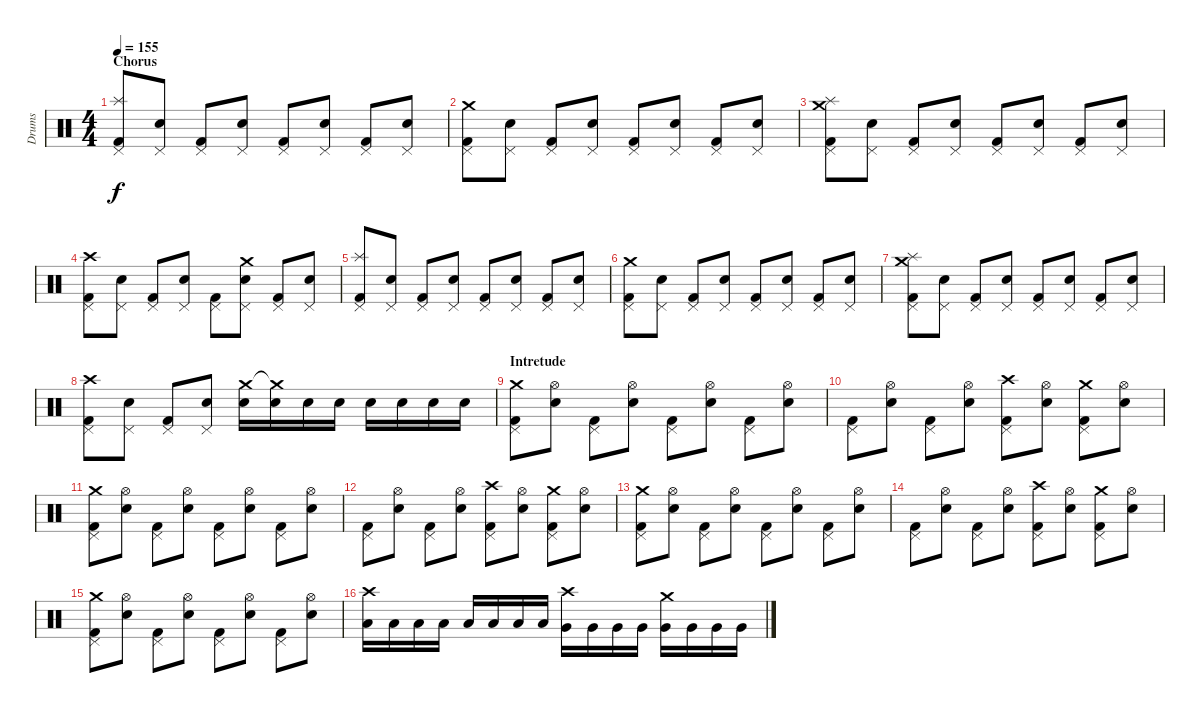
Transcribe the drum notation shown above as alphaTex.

\track ("Drums" "Drums") {instrument percussion}
\staff {score}
\articulation defaults
\ts (4 4)
\section ("" "Chorus")
\tempo 155
\clef neutral
\ks c
("Pedal Hi-Hat (hit)" "Splash (hit)" "Kick (hit) 2").8{dy f} ("Pedal Hi-Hat (hit)" "Electric Snare (hit)").8 ("Pedal Hi-Hat (hit)" "Kick (hit) 2").8 ("Pedal Hi-Hat (hit)" "Electric Snare (hit)").8 ("Pedal Hi-Hat (hit)" "Kick (hit) 2").8 ("Pedal Hi-Hat (hit)" "Electric Snare (hit)").8 ("Pedal Hi-Hat (hit)" "Kick (hit) 2").8 ("Pedal Hi-Hat (hit)" "Electric Snare (hit)").8 |
("Pedal Hi-Hat (hit)" "Crash medium (hit)" "Kick (hit) 2").8 ("Pedal Hi-Hat (hit)" "Electric Snare (hit)").8 ("Pedal Hi-Hat (hit)" "Kick (hit) 2").8 ("Pedal Hi-Hat (hit)" "Electric Snare (hit)").8 ("Pedal Hi-Hat (hit)" "Kick (hit) 2").8 ("Pedal Hi-Hat (hit)" "Electric Snare (hit)").8 ("Pedal Hi-Hat (hit)" "Kick (hit) 2").8 ("Pedal Hi-Hat (hit)" "Electric Snare (hit)").8 |
("Pedal Hi-Hat (hit)" "Splash (hit)" "Crash medium (hit)" "Kick (hit) 2").8 ("Pedal Hi-Hat (hit)" "Electric Snare (hit)").8 ("Pedal Hi-Hat (hit)" "Kick (hit) 2").8 ("Pedal Hi-Hat (hit)" "Electric Snare (hit)").8 ("Pedal Hi-Hat (hit)" "Kick (hit) 2").8 ("Pedal Hi-Hat (hit)" "Electric Snare (hit)").8 ("Pedal Hi-Hat (hit)" "Kick (hit) 2").8 ("Pedal Hi-Hat (hit)" "Electric Snare (hit)").8 |
("Pedal Hi-Hat (hit)" "Crash high (hit)" "Kick (hit) 2").8 ("Pedal Hi-Hat (hit)" "Electric Snare (hit)").8 ("Pedal Hi-Hat (hit)" "Kick (hit) 2").8 ("Pedal Hi-Hat (hit)" "Electric Snare (hit)").8 ("Pedal Hi-Hat (hit)" "Kick (hit) 2").8 ("Pedal Hi-Hat (hit)" "Crash medium (hit)" "Electric Snare (hit)").8 ("Pedal Hi-Hat (hit)" "Kick (hit) 2").8 ("Pedal Hi-Hat (hit)" "Electric Snare (hit)").8 |
("Pedal Hi-Hat (hit)" "Splash (hit)" "Kick (hit) 2").8 ("Pedal Hi-Hat (hit)" "Electric Snare (hit)").8 ("Pedal Hi-Hat (hit)" "Kick (hit) 2").8 ("Pedal Hi-Hat (hit)" "Electric Snare (hit)").8 ("Pedal Hi-Hat (hit)" "Kick (hit) 2").8 ("Pedal Hi-Hat (hit)" "Electric Snare (hit)").8 ("Pedal Hi-Hat (hit)" "Kick (hit) 2").8 ("Pedal Hi-Hat (hit)" "Electric Snare (hit)").8 |
("Pedal Hi-Hat (hit)" "Crash medium (hit)" "Kick (hit) 2").8 ("Pedal Hi-Hat (hit)" "Electric Snare (hit)").8 ("Pedal Hi-Hat (hit)" "Kick (hit) 2").8 ("Pedal Hi-Hat (hit)" "Electric Snare (hit)").8 ("Pedal Hi-Hat (hit)" "Kick (hit) 2").8 ("Pedal Hi-Hat (hit)" "Electric Snare (hit)").8 ("Pedal Hi-Hat (hit)" "Kick (hit) 2").8 ("Pedal Hi-Hat (hit)" "Electric Snare (hit)").8 |
("Pedal Hi-Hat (hit)" "Splash (hit)" "Crash medium (hit)" "Kick (hit) 2").8 ("Pedal Hi-Hat (hit)" "Electric Snare (hit)").8 ("Pedal Hi-Hat (hit)" "Kick (hit) 2").8 ("Pedal Hi-Hat (hit)" "Electric Snare (hit)").8 ("Pedal Hi-Hat (hit)" "Kick (hit) 2").8 ("Pedal Hi-Hat (hit)" "Electric Snare (hit)").8 ("Pedal Hi-Hat (hit)" "Kick (hit) 2").8 ("Pedal Hi-Hat (hit)" "Electric Snare (hit)").8 |
("Pedal Hi-Hat (hit)" "Crash high (hit)" "Kick (hit) 2").8 ("Pedal Hi-Hat (hit)" "Electric Snare (hit)").8 ("Pedal Hi-Hat (hit)" "Kick (hit) 2").8 ("Pedal Hi-Hat (hit)" "Electric Snare (hit)").8 ("Crash medium (hit)" "Electric Snare (hit)").16 ("Crash medium (hit)"{t} "Electric Snare (hit)").16 "Electric Snare (hit)".16 "Electric Snare (hit)".16 "Electric Snare (hit)".16 "Electric Snare (hit)".16 "Electric Snare (hit)".16 "Electric Snare (hit)".16 |
\section ("" "Intretude")
("Pedal Hi-Hat (hit)" "Crash medium (hit)" "Kick (hit) 2").8 ("Hi-Hat (open)" "Electric Snare (hit)").8 ("Pedal Hi-Hat (hit)" "Kick (hit) 2").8 ("Hi-Hat (open)" "Electric Snare (hit)").8 ("Pedal Hi-Hat (hit)" "Kick (hit) 2").8 ("Hi-Hat (open)" "Electric Snare (hit)").8 ("Pedal Hi-Hat (hit)" "Kick (hit) 2").8 ("Hi-Hat (open)" "Electric Snare (hit)").8 |
("Pedal Hi-Hat (hit)" "Kick (hit) 2").8 ("Hi-Hat (open)" "Electric Snare (hit)").8 ("Pedal Hi-Hat (hit)" "Kick (hit) 2").8 ("Hi-Hat (open)" "Electric Snare (hit)").8 ("Pedal Hi-Hat (hit)" "Crash high (hit)" "Kick (hit) 2").8 ("Hi-Hat (open)" "Electric Snare (hit)").8 ("Pedal Hi-Hat (hit)" "Crash medium (hit)" "Kick (hit) 2").8 ("Hi-Hat (open)" "Electric Snare (hit)").8 |
("Pedal Hi-Hat (hit)" "Crash medium (hit)" "Kick (hit) 2").8 ("Hi-Hat (open)" "Electric Snare (hit)").8 ("Pedal Hi-Hat (hit)" "Kick (hit) 2").8 ("Hi-Hat (open)" "Electric Snare (hit)").8 ("Pedal Hi-Hat (hit)" "Kick (hit) 2").8 ("Hi-Hat (open)" "Electric Snare (hit)").8 ("Pedal Hi-Hat (hit)" "Kick (hit) 2").8 ("Hi-Hat (open)" "Electric Snare (hit)").8 |
("Pedal Hi-Hat (hit)" "Kick (hit) 2").8 ("Hi-Hat (open)" "Electric Snare (hit)").8 ("Pedal Hi-Hat (hit)" "Kick (hit) 2").8 ("Hi-Hat (open)" "Electric Snare (hit)").8 ("Pedal Hi-Hat (hit)" "Crash high (hit)" "Kick (hit) 2").8 ("Hi-Hat (open)" "Electric Snare (hit)").8 ("Pedal Hi-Hat (hit)" "Crash medium (hit)" "Kick (hit) 2").8 ("Hi-Hat (open)" "Electric Snare (hit)").8 |
("Pedal Hi-Hat (hit)" "Crash medium (hit)" "Kick (hit) 2").8 ("Hi-Hat (open)" "Electric Snare (hit)").8 ("Pedal Hi-Hat (hit)" "Kick (hit) 2").8 ("Hi-Hat (open)" "Electric Snare (hit)").8 ("Pedal Hi-Hat (hit)" "Kick (hit) 2").8 ("Hi-Hat (open)" "Electric Snare (hit)").8 ("Pedal Hi-Hat (hit)" "Kick (hit) 2").8 ("Hi-Hat (open)" "Electric Snare (hit)").8 |
("Pedal Hi-Hat (hit)" "Kick (hit) 2").8 ("Hi-Hat (open)" "Electric Snare (hit)").8 ("Pedal Hi-Hat (hit)" "Kick (hit) 2").8 ("Hi-Hat (open)" "Electric Snare (hit)").8 ("Pedal Hi-Hat (hit)" "Crash high (hit)" "Kick (hit) 2").8 ("Hi-Hat (open)" "Electric Snare (hit)").8 ("Pedal Hi-Hat (hit)" "Crash medium (hit)" "Kick (hit) 2").8 ("Hi-Hat (open)" "Electric Snare (hit)").8 |
("Pedal Hi-Hat (hit)" "Crash medium (hit)" "Kick (hit) 2").8 ("Hi-Hat (open)" "Electric Snare (hit)").8 ("Pedal Hi-Hat (hit)" "Kick (hit) 2").8 ("Hi-Hat (open)" "Electric Snare (hit)").8 ("Pedal Hi-Hat (hit)" "Kick (hit) 2").8 ("Hi-Hat (open)" "Electric Snare (hit)").8 ("Pedal Hi-Hat (hit)" "Kick (hit) 2").8 ("Hi-Hat (open)" "Electric Snare (hit)").8 |
("Crash high (hit)" "Low Tom (hit)").16 "Low Tom (hit)".16 "Low Tom (hit)".16 "Low Tom (hit)".16 "Low Tom (hit)".16 "Low Tom (hit)".16 "Low Tom (hit)".16 "Low Tom (hit)".16 ("Crash high (hit)" "Very Low Tom (hit)").16 "Very Low Tom (hit)".16 "Very Low Tom (hit)".16 "Very Low Tom (hit)".16 ("Crash medium (hit)" "Very Low Tom (hit)").16 "Very Low Tom (hit)".16 "Very Low Tom (hit)".16 "Very Low Tom (hit)".16
